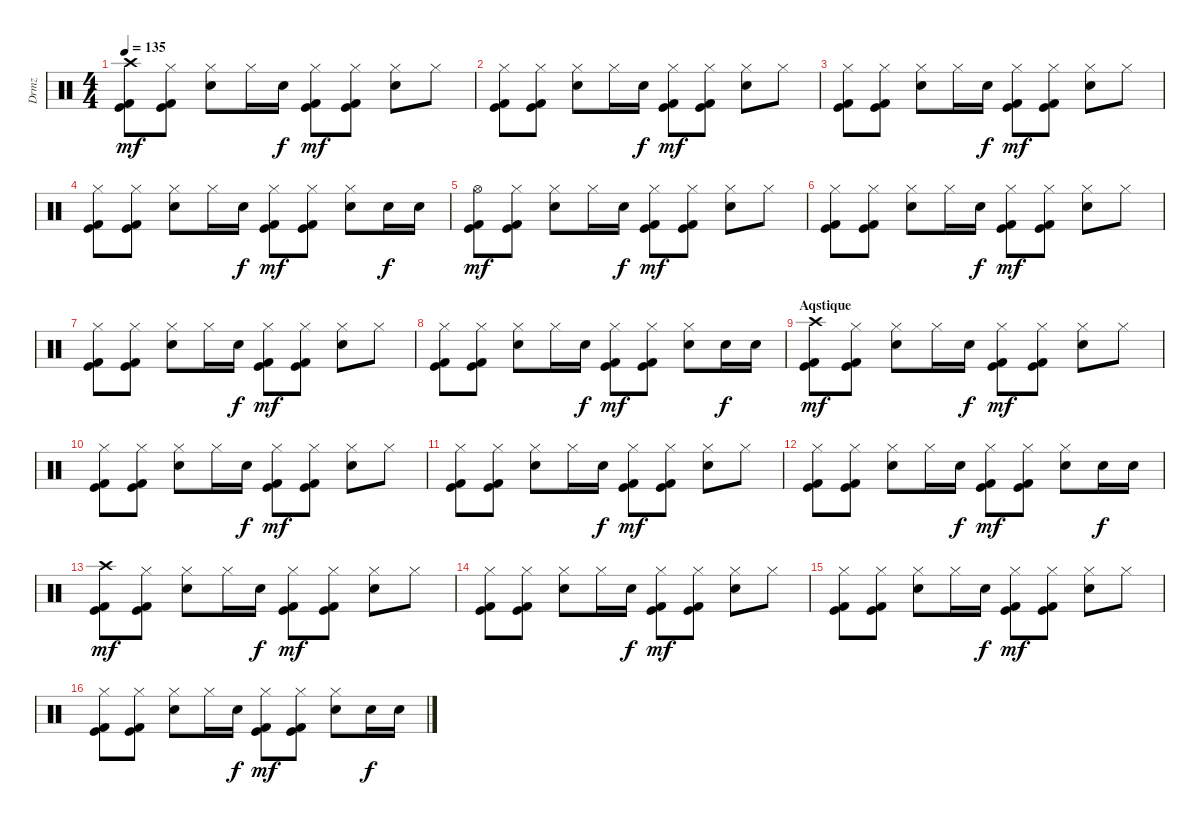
\track ("Drmz" "Drmz") {instrument percussion}
\staff {score}
\articulation defaults
\ts (4 4)
\tempo 135
\clef neutral
\ks c
("Kick (hit) 2" "Kick (hit)" "Crash high (hit)").8{dy mf} ("Kick (hit) 2" "Kick (hit)" "Hi-Hat (closed)").8 ("Snare (hit) 2" "Hi-Hat (closed)").8 "Hi-Hat (closed)".16 "Snare (hit) 2".16{dy f} ("Kick (hit)" "Kick (hit) 2" "Hi-Hat (closed)").8{dy mf} ("Kick (hit) 2" "Kick (hit)" "Hi-Hat (closed)").8 ("Snare (hit) 2" "Hi-Hat (closed)").8 "Hi-Hat (closed)".8 |
("Kick (hit) 2" "Kick (hit)" "Hi-Hat (closed)").8 ("Kick (hit) 2" "Kick (hit)" "Hi-Hat (closed)").8 ("Snare (hit) 2" "Hi-Hat (closed)").8 "Hi-Hat (closed)".16 "Snare (hit) 2".16{dy f} ("Kick (hit)" "Kick (hit) 2" "Hi-Hat (closed)").8{dy mf} ("Kick (hit) 2" "Kick (hit)" "Hi-Hat (closed)").8 ("Snare (hit) 2" "Hi-Hat (closed)").8 "Hi-Hat (closed)".8 |
("Kick (hit) 2" "Kick (hit)" "Hi-Hat (closed)").8 ("Kick (hit) 2" "Kick (hit)" "Hi-Hat (closed)").8 ("Snare (hit) 2" "Hi-Hat (closed)").8 "Hi-Hat (closed)".16 "Snare (hit) 2".16{dy f} ("Kick (hit)" "Kick (hit) 2" "Hi-Hat (closed)").8{dy mf} ("Kick (hit) 2" "Kick (hit)" "Hi-Hat (closed)").8 ("Snare (hit) 2" "Hi-Hat (closed)").8 "Hi-Hat (closed)".8 |
("Kick (hit) 2" "Kick (hit)" "Hi-Hat (closed)").8 ("Kick (hit) 2" "Kick (hit)" "Hi-Hat (closed)").8 ("Snare (hit) 2" "Hi-Hat (closed)").8 "Hi-Hat (closed)".16 "Snare (hit) 2".16{dy f} ("Kick (hit)" "Kick (hit) 2" "Hi-Hat (closed)").8{dy mf} ("Kick (hit) 2" "Kick (hit)" "Hi-Hat (closed)").8 ("Snare (hit) 2" "Hi-Hat (closed)").8 "Snare (hit) 2".16{dy f} "Snare (hit) 2".16 |
("Kick (hit) 2" "Kick (hit)" "Hi-Hat (open)").8{dy mf} ("Kick (hit) 2" "Kick (hit)" "Hi-Hat (closed)").8 ("Snare (hit) 2" "Hi-Hat (closed)").8 "Hi-Hat (closed)".16 "Snare (hit) 2".16{dy f} ("Kick (hit)" "Kick (hit) 2" "Hi-Hat (closed)").8{dy mf} ("Kick (hit) 2" "Kick (hit)" "Hi-Hat (closed)").8 ("Snare (hit) 2" "Hi-Hat (closed)").8 "Hi-Hat (closed)".8 |
("Kick (hit) 2" "Kick (hit)" "Hi-Hat (closed)").8 ("Kick (hit) 2" "Kick (hit)" "Hi-Hat (closed)").8 ("Snare (hit) 2" "Hi-Hat (closed)").8 "Hi-Hat (closed)".16 "Snare (hit) 2".16{dy f} ("Kick (hit)" "Kick (hit) 2" "Hi-Hat (closed)").8{dy mf} ("Kick (hit) 2" "Kick (hit)" "Hi-Hat (closed)").8 ("Snare (hit) 2" "Hi-Hat (closed)").8 "Hi-Hat (closed)".8 |
("Kick (hit) 2" "Kick (hit)" "Hi-Hat (closed)").8 ("Kick (hit) 2" "Kick (hit)" "Hi-Hat (closed)").8 ("Snare (hit) 2" "Hi-Hat (closed)").8 "Hi-Hat (closed)".16 "Snare (hit) 2".16{dy f} ("Kick (hit)" "Kick (hit) 2" "Hi-Hat (closed)").8{dy mf} ("Kick (hit) 2" "Kick (hit)" "Hi-Hat (closed)").8 ("Snare (hit) 2" "Hi-Hat (closed)").8 "Hi-Hat (closed)".8 |
("Kick (hit) 2" "Kick (hit)" "Hi-Hat (closed)").8 ("Kick (hit) 2" "Kick (hit)" "Hi-Hat (closed)").8 ("Snare (hit) 2" "Hi-Hat (closed)").8 "Hi-Hat (closed)".16 "Snare (hit) 2".16{dy f} ("Kick (hit)" "Kick (hit) 2" "Hi-Hat (closed)").8{dy mf} ("Kick (hit) 2" "Kick (hit)" "Hi-Hat (closed)").8 ("Snare (hit) 2" "Hi-Hat (closed)").8 "Snare (hit) 2".16{dy f} "Snare (hit) 2".16 |
\section ("" "Aqstique")
("Kick (hit) 2" "Kick (hit)" "Crash high (hit)").8{dy mf} ("Kick (hit) 2" "Kick (hit)" "Hi-Hat (closed)").8 ("Snare (hit) 2" "Hi-Hat (closed)").8 "Hi-Hat (closed)".16 "Snare (hit) 2".16{dy f} ("Kick (hit)" "Kick (hit) 2" "Hi-Hat (closed)").8{dy mf} ("Kick (hit) 2" "Kick (hit)" "Hi-Hat (closed)").8 ("Snare (hit) 2" "Hi-Hat (closed)").8 "Hi-Hat (closed)".8 |
("Kick (hit) 2" "Kick (hit)" "Hi-Hat (closed)").8 ("Kick (hit) 2" "Kick (hit)" "Hi-Hat (closed)").8 ("Snare (hit) 2" "Hi-Hat (closed)").8 "Hi-Hat (closed)".16 "Snare (hit) 2".16{dy f} ("Kick (hit)" "Kick (hit) 2" "Hi-Hat (closed)").8{dy mf} ("Kick (hit) 2" "Kick (hit)" "Hi-Hat (closed)").8 ("Snare (hit) 2" "Hi-Hat (closed)").8 "Hi-Hat (closed)".8 |
("Kick (hit) 2" "Kick (hit)" "Hi-Hat (closed)").8 ("Kick (hit) 2" "Kick (hit)" "Hi-Hat (closed)").8 ("Snare (hit) 2" "Hi-Hat (closed)").8 "Hi-Hat (closed)".16 "Snare (hit) 2".16{dy f} ("Kick (hit)" "Kick (hit) 2" "Hi-Hat (closed)").8{dy mf} ("Kick (hit) 2" "Kick (hit)" "Hi-Hat (closed)").8 ("Snare (hit) 2" "Hi-Hat (closed)").8 "Hi-Hat (closed)".8 |
("Kick (hit) 2" "Kick (hit)" "Hi-Hat (closed)").8 ("Kick (hit) 2" "Kick (hit)" "Hi-Hat (closed)").8 ("Snare (hit) 2" "Hi-Hat (closed)").8 "Hi-Hat (closed)".16 "Snare (hit) 2".16{dy f} ("Kick (hit)" "Kick (hit) 2" "Hi-Hat (closed)").8{dy mf} ("Kick (hit) 2" "Kick (hit)" "Hi-Hat (closed)").8 ("Snare (hit) 2" "Hi-Hat (closed)").8 "Snare (hit) 2".16{dy f} "Snare (hit) 2".16 |
("Kick (hit) 2" "Kick (hit)" "Crash high (hit)").8{dy mf} ("Kick (hit) 2" "Kick (hit)" "Hi-Hat (closed)").8 ("Snare (hit) 2" "Hi-Hat (closed)").8 "Hi-Hat (closed)".16 "Snare (hit) 2".16{dy f} ("Kick (hit)" "Kick (hit) 2" "Hi-Hat (closed)").8{dy mf} ("Kick (hit) 2" "Kick (hit)" "Hi-Hat (closed)").8 ("Snare (hit) 2" "Hi-Hat (closed)").8 "Hi-Hat (closed)".8 |
("Kick (hit) 2" "Kick (hit)" "Hi-Hat (closed)").8 ("Kick (hit) 2" "Kick (hit)" "Hi-Hat (closed)").8 ("Snare (hit) 2" "Hi-Hat (closed)").8 "Hi-Hat (closed)".16 "Snare (hit) 2".16{dy f} ("Kick (hit)" "Kick (hit) 2" "Hi-Hat (closed)").8{dy mf} ("Kick (hit) 2" "Kick (hit)" "Hi-Hat (closed)").8 ("Snare (hit) 2" "Hi-Hat (closed)").8 "Hi-Hat (closed)".8 |
("Kick (hit) 2" "Kick (hit)" "Hi-Hat (closed)").8 ("Kick (hit) 2" "Kick (hit)" "Hi-Hat (closed)").8 ("Snare (hit) 2" "Hi-Hat (closed)").8 "Hi-Hat (closed)".16 "Snare (hit) 2".16{dy f} ("Kick (hit)" "Kick (hit) 2" "Hi-Hat (closed)").8{dy mf} ("Kick (hit) 2" "Kick (hit)" "Hi-Hat (closed)").8 ("Snare (hit) 2" "Hi-Hat (closed)").8 "Hi-Hat (closed)".8 |
("Kick (hit) 2" "Kick (hit)" "Hi-Hat (closed)").8 ("Kick (hit) 2" "Kick (hit)" "Hi-Hat (closed)").8 ("Snare (hit) 2" "Hi-Hat (closed)").8 "Hi-Hat (closed)".16 "Snare (hit) 2".16{dy f} ("Kick (hit)" "Kick (hit) 2" "Hi-Hat (closed)").8{dy mf} ("Kick (hit) 2" "Kick (hit)" "Hi-Hat (closed)").8 ("Snare (hit) 2" "Hi-Hat (closed)").8 "Snare (hit) 2".16{dy f} "Snare (hit) 2".16
